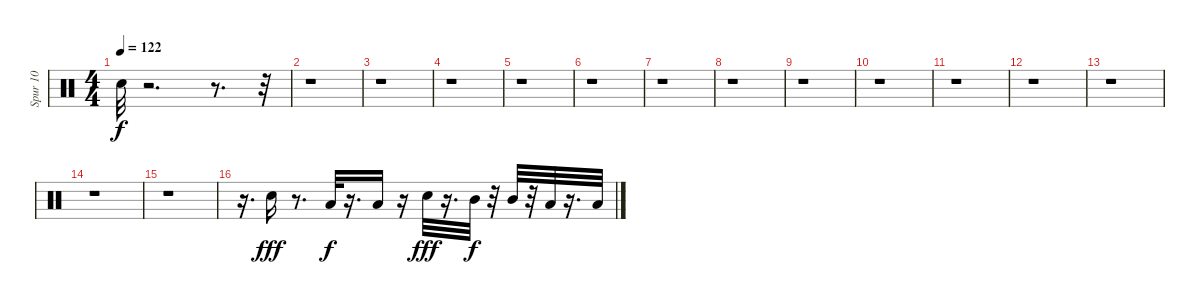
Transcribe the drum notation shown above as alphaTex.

\track ("Spur 10" "Spur 10") {instrument percussion}
\staff {score}
\articulation defaults
\ts (4 4)
\tempo 122
\clef neutral
\ks c "Snare (hit)"{t}.32{dy f}
r.2{d} r.8{d} r.32 |
r.1 |
r.1 |
r.1 |
r.1 |
r.1 |
r.1 |
r.1 |
r.1 |
r.1 |
r.1 |
r.1 |
r.1 |
r.1 |
r.1 |
r.16{d} "Snare (hit) 2".16{dy fff} r.8{d} "Low Tom (hit)".32{dy f} r.16{d} "Low Tom (hit)".16 r.16 "Snare (hit) 2".32{dy fff} r.16{d} "Mid Tom (hit)".32{dy f} r.32 "Mid Tom (hit)".32 r.32 "Low Tom (hit)".32 r.16{d} "Low Tom (hit)".32
